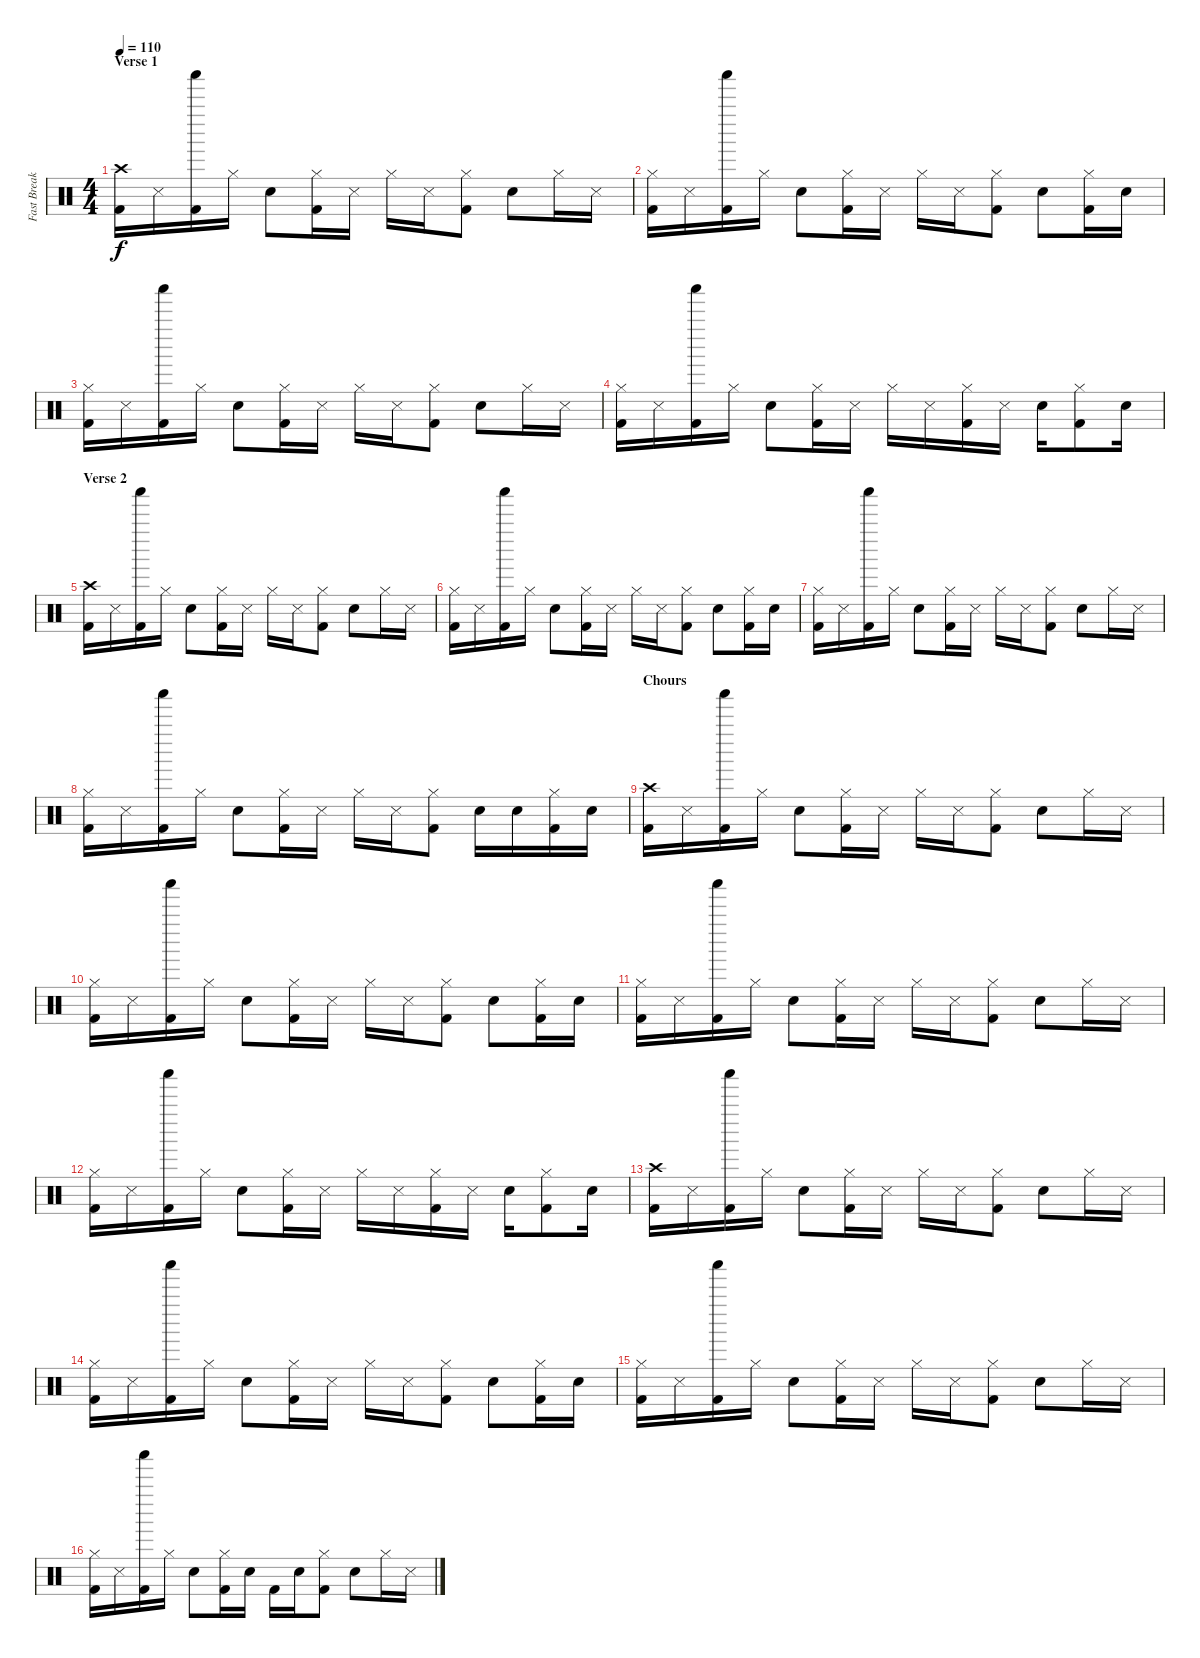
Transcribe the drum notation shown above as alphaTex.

\track ("Fast Break Drums" "Fast Break") {instrument percussion}
\staff {score}
\articulation defaults
\ts (4 4)
\section ("" "Verse 1")
\tempo 110
\clef neutral
\ks c
("Kick (hit) 2" "Crash high (hit)").16{dy f} "Snare (side stick) 3".16 ("Kick (hit) 2" "Shaker (hit)").16 "Hi-Hat (closed)".16 "Snare (hit) 2".8 ("Kick (hit) 2" "Hi-Hat (closed)").16 "Snare (side stick) 3".16 "Hi-Hat (closed)".16 "Snare (side stick) 3".16 ("Kick (hit) 2" "Hi-Hat (closed)").8 "Snare (hit) 2".8 "Hi-Hat (closed)".16 "Snare (side stick) 3".16 |
("Kick (hit) 2" "Hi-Hat (closed)").16 "Snare (side stick) 3".16 ("Kick (hit) 2" "Shaker (hit)").16 "Hi-Hat (closed)".16 "Snare (hit) 2".8 ("Kick (hit) 2" "Hi-Hat (closed)").16 "Snare (side stick) 3".16 "Hi-Hat (closed)".16 "Snare (side stick) 3".16 ("Kick (hit) 2" "Hi-Hat (closed)").8 "Snare (hit) 2".8 ("Kick (hit) 2" "Hi-Hat (closed)").16 "Snare (hit) 2".16 |
("Kick (hit) 2" "Hi-Hat (closed)").16 "Snare (side stick) 3".16 ("Kick (hit) 2" "Shaker (hit)").16 "Hi-Hat (closed)".16 "Snare (hit) 2".8 ("Kick (hit) 2" "Hi-Hat (closed)").16 "Snare (side stick) 3".16 "Hi-Hat (closed)".16 "Snare (side stick) 3".16 ("Kick (hit) 2" "Hi-Hat (closed)").8 "Snare (hit) 2".8 "Hi-Hat (closed)".16 "Snare (side stick) 3".16 |
("Kick (hit) 2" "Hi-Hat (closed)").16 "Snare (side stick) 3".16 ("Kick (hit) 2" "Shaker (hit)").16 "Hi-Hat (closed)".16 "Snare (hit) 2".8 ("Kick (hit) 2" "Hi-Hat (closed)").16 "Snare (side stick) 3".16 "Hi-Hat (closed)".16 "Snare (side stick) 3".16 ("Kick (hit) 2" "Hi-Hat (closed)").16 "Snare (side stick) 3".16 "Snare (hit) 2".16 ("Kick (hit) 2" "Hi-Hat (closed)").8 "Snare (hit) 2".16 |
\section ("" "Verse 2")
("Kick (hit) 2" "Crash high (hit)").16 "Snare (side stick) 3".16 ("Kick (hit) 2" "Shaker (hit)").16 "Hi-Hat (closed)".16 "Snare (hit) 2".8 ("Kick (hit) 2" "Hi-Hat (closed)").16 "Snare (side stick) 3".16 "Hi-Hat (closed)".16 "Snare (side stick) 3".16 ("Kick (hit) 2" "Hi-Hat (closed)").8 "Snare (hit) 2".8 "Hi-Hat (closed)".16 "Snare (side stick) 3".16 |
("Kick (hit) 2" "Hi-Hat (closed)").16 "Snare (side stick) 3".16 ("Kick (hit) 2" "Shaker (hit)").16 "Hi-Hat (closed)".16 "Snare (hit) 2".8 ("Kick (hit) 2" "Hi-Hat (closed)").16 "Snare (side stick) 3".16 "Hi-Hat (closed)".16 "Snare (side stick) 3".16 ("Kick (hit) 2" "Hi-Hat (closed)").8 "Snare (hit) 2".8 ("Kick (hit) 2" "Hi-Hat (closed)").16 "Snare (hit) 2".16 |
("Kick (hit) 2" "Hi-Hat (closed)").16 "Snare (side stick) 3".16 ("Kick (hit) 2" "Shaker (hit)").16 "Hi-Hat (closed)".16 "Snare (hit) 2".8 ("Kick (hit) 2" "Hi-Hat (closed)").16 "Snare (side stick) 3".16 "Hi-Hat (closed)".16 "Snare (side stick) 3".16 ("Kick (hit) 2" "Hi-Hat (closed)").8 "Snare (hit) 2".8 "Hi-Hat (closed)".16 "Snare (side stick) 3".16 |
("Kick (hit) 2" "Hi-Hat (closed)").16 "Snare (side stick) 3".16 ("Kick (hit) 2" "Shaker (hit)").16 "Hi-Hat (closed)".16 "Snare (hit) 2".8 ("Kick (hit) 2" "Hi-Hat (closed)").16 "Snare (side stick) 3".16 "Hi-Hat (closed)".16 "Snare (side stick) 3".16 ("Kick (hit) 2" "Hi-Hat (closed)").8 "Snare (hit) 2".16 "Snare (hit) 2".16 ("Kick (hit) 2" "Hi-Hat (closed)").16 "Snare (hit) 2".16 |
\section ("" "Chours")
("Kick (hit) 2" "Crash high (hit)").16 "Snare (side stick) 3".16 ("Kick (hit) 2" "Shaker (hit)").16 "Hi-Hat (closed)".16 "Snare (hit) 2".8 ("Kick (hit) 2" "Hi-Hat (closed)").16 "Snare (side stick) 3".16 "Hi-Hat (closed)".16 "Snare (side stick) 3".16 ("Kick (hit) 2" "Hi-Hat (closed)").8 "Snare (hit) 2".8 "Hi-Hat (closed)".16 "Snare (side stick) 3".16 |
("Kick (hit) 2" "Hi-Hat (closed)").16 "Snare (side stick) 3".16 ("Kick (hit) 2" "Shaker (hit)").16 "Hi-Hat (closed)".16 "Snare (hit) 2".8 ("Kick (hit) 2" "Hi-Hat (closed)").16 "Snare (side stick) 3".16 "Hi-Hat (closed)".16 "Snare (side stick) 3".16 ("Kick (hit) 2" "Hi-Hat (closed)").8 "Snare (hit) 2".8 ("Kick (hit) 2" "Hi-Hat (closed)").16 "Snare (hit) 2".16 |
("Kick (hit) 2" "Hi-Hat (closed)").16 "Snare (side stick) 3".16 ("Kick (hit) 2" "Shaker (hit)").16 "Hi-Hat (closed)".16 "Snare (hit) 2".8 ("Kick (hit) 2" "Hi-Hat (closed)").16 "Snare (side stick) 3".16 "Hi-Hat (closed)".16 "Snare (side stick) 3".16 ("Kick (hit) 2" "Hi-Hat (closed)").8 "Snare (hit) 2".8 "Hi-Hat (closed)".16 "Snare (side stick) 3".16 |
("Kick (hit) 2" "Hi-Hat (closed)").16 "Snare (side stick) 3".16 ("Kick (hit) 2" "Shaker (hit)").16 "Hi-Hat (closed)".16 "Snare (hit) 2".8 ("Kick (hit) 2" "Hi-Hat (closed)").16 "Snare (side stick) 3".16 "Hi-Hat (closed)".16 "Snare (side stick) 3".16 ("Kick (hit) 2" "Hi-Hat (closed)").16 "Snare (side stick) 3".16 "Snare (hit) 2".16 ("Kick (hit) 2" "Hi-Hat (closed)").8 "Snare (hit) 2".16 |
("Kick (hit) 2" "Crash high (hit)").16 "Snare (side stick) 3".16 ("Kick (hit) 2" "Shaker (hit)").16 "Hi-Hat (closed)".16 "Snare (hit) 2".8 ("Kick (hit) 2" "Hi-Hat (closed)").16 "Snare (side stick) 3".16 "Hi-Hat (closed)".16 "Snare (side stick) 3".16 ("Kick (hit) 2" "Hi-Hat (closed)").8 "Snare (hit) 2".8 "Hi-Hat (closed)".16 "Snare (side stick) 3".16 |
("Kick (hit) 2" "Hi-Hat (closed)").16 "Snare (side stick) 3".16 ("Kick (hit) 2" "Shaker (hit)").16 "Hi-Hat (closed)".16 "Snare (hit) 2".8 ("Kick (hit) 2" "Hi-Hat (closed)").16 "Snare (side stick) 3".16 "Hi-Hat (closed)".16 "Snare (side stick) 3".16 ("Kick (hit) 2" "Hi-Hat (closed)").8 "Snare (hit) 2".8 ("Kick (hit) 2" "Hi-Hat (closed)").16 "Snare (hit) 2".16 |
("Kick (hit) 2" "Hi-Hat (closed)").16 "Snare (side stick) 3".16 ("Kick (hit) 2" "Shaker (hit)").16 "Hi-Hat (closed)".16 "Snare (hit) 2".8 ("Kick (hit) 2" "Hi-Hat (closed)").16 "Snare (side stick) 3".16 "Hi-Hat (closed)".16 "Snare (side stick) 3".16 ("Kick (hit) 2" "Hi-Hat (closed)").8 "Snare (hit) 2".8 "Hi-Hat (closed)".16 "Snare (side stick) 3".16 |
("Kick (hit) 2" "Hi-Hat (closed)").16 "Snare (side stick) 3".16 ("Kick (hit) 2" "Shaker (hit)").16 "Hi-Hat (closed)".16 "Snare (hit) 2".8 ("Kick (hit) 2" "Hi-Hat (closed)").16 "Snare (hit) 2".16 "Kick (hit) 2".16 "Snare (hit) 2".16 ("Kick (hit) 2" "Hi-Hat (closed)").8 "Snare (hit) 2".8 "Hi-Hat (closed)".16 "Snare (side stick) 3".16
